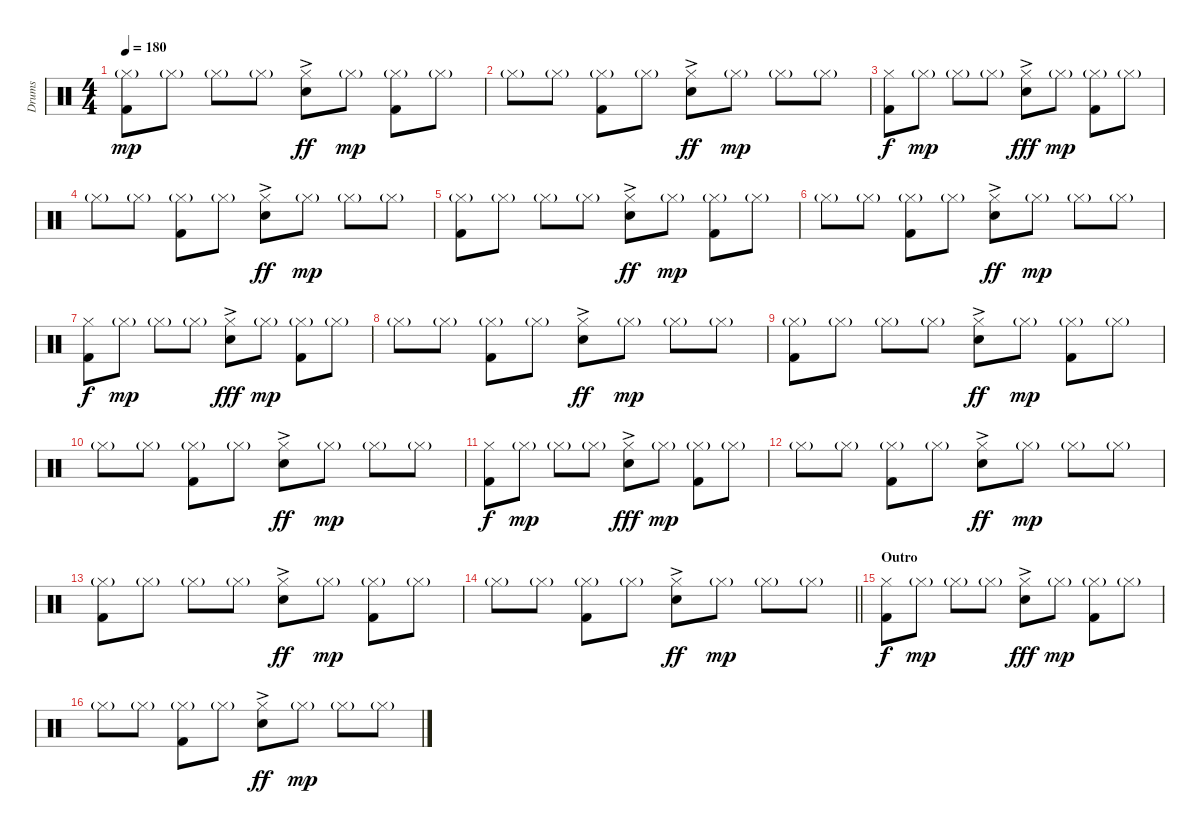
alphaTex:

\track ("Drums" "Drums") {instrument percussion}
\staff {score}
\articulation defaults
\ts (4 4)
\tempo 180
\clef neutral
\ks c
("Hi-Hat (closed)"{g} "Kick (hit) 2").8{dy mp} "Hi-Hat (closed)"{g}.8 "Hi-Hat (closed)"{g}.8 "Hi-Hat (closed)"{g}.8 ("Hi-Hat (closed)"{ac} "Snare (hit) 2"{ac}).8{dy ff} "Hi-Hat (closed)"{g}.8{dy mp} ("Hi-Hat (closed)"{g} "Kick (hit) 2").8 "Hi-Hat (closed)"{g}.8 |
"Hi-Hat (closed)"{g}.8 "Hi-Hat (closed)"{g}.8 ("Hi-Hat (closed)"{g} "Kick (hit) 2").8 "Hi-Hat (closed)"{g}.8 ("Hi-Hat (closed)"{ac} "Snare (hit) 2"{ac}).8{dy ff} "Hi-Hat (closed)"{g}.8{dy mp} "Hi-Hat (closed)"{g}.8 "Hi-Hat (closed)"{g}.8 |
("Hi-Hat (closed)" "Kick (hit) 2").8{dy f} "Hi-Hat (closed)"{g}.8{dy mp} "Hi-Hat (closed)"{g}.8 "Hi-Hat (closed)"{g}.8 ("Hi-Hat (closed)"{ac} "Snare (hit) 2"{ac}).8{dy fff} "Hi-Hat (closed)"{g}.8{dy mp} ("Hi-Hat (closed)"{g} "Kick (hit) 2").8 "Hi-Hat (closed)"{g}.8 |
"Hi-Hat (closed)"{g}.8 "Hi-Hat (closed)"{g}.8 ("Hi-Hat (closed)"{g} "Kick (hit) 2").8 "Hi-Hat (closed)"{g}.8 ("Hi-Hat (closed)"{ac} "Snare (hit) 2"{ac}).8{dy ff} "Hi-Hat (closed)"{g}.8{dy mp} "Hi-Hat (closed)"{g}.8 "Hi-Hat (closed)"{g}.8 |
("Hi-Hat (closed)"{g} "Kick (hit) 2").8 "Hi-Hat (closed)"{g}.8 "Hi-Hat (closed)"{g}.8 "Hi-Hat (closed)"{g}.8 ("Hi-Hat (closed)"{ac} "Snare (hit) 2"{ac}).8{dy ff} "Hi-Hat (closed)"{g}.8{dy mp} ("Hi-Hat (closed)"{g} "Kick (hit) 2").8 "Hi-Hat (closed)"{g}.8 |
"Hi-Hat (closed)"{g}.8 "Hi-Hat (closed)"{g}.8 ("Hi-Hat (closed)"{g} "Kick (hit) 2").8 "Hi-Hat (closed)"{g}.8 ("Hi-Hat (closed)"{ac} "Snare (hit) 2"{ac}).8{dy ff} "Hi-Hat (closed)"{g}.8{dy mp} "Hi-Hat (closed)"{g}.8 "Hi-Hat (closed)"{g}.8 |
("Hi-Hat (closed)" "Kick (hit) 2").8{dy f} "Hi-Hat (closed)"{g}.8{dy mp} "Hi-Hat (closed)"{g}.8 "Hi-Hat (closed)"{g}.8 ("Hi-Hat (closed)"{ac} "Snare (hit) 2"{ac}).8{dy fff} "Hi-Hat (closed)"{g}.8{dy mp} ("Hi-Hat (closed)"{g} "Kick (hit) 2").8 "Hi-Hat (closed)"{g}.8 |
"Hi-Hat (closed)"{g}.8 "Hi-Hat (closed)"{g}.8 ("Hi-Hat (closed)"{g} "Kick (hit) 2").8 "Hi-Hat (closed)"{g}.8 ("Hi-Hat (closed)"{ac} "Snare (hit) 2"{ac}).8{dy ff} "Hi-Hat (closed)"{g}.8{dy mp} "Hi-Hat (closed)"{g}.8 "Hi-Hat (closed)"{g}.8 |
("Hi-Hat (closed)"{g} "Kick (hit) 2").8 "Hi-Hat (closed)"{g}.8 "Hi-Hat (closed)"{g}.8 "Hi-Hat (closed)"{g}.8 ("Hi-Hat (closed)"{ac} "Snare (hit) 2"{ac}).8{dy ff} "Hi-Hat (closed)"{g}.8{dy mp} ("Hi-Hat (closed)"{g} "Kick (hit) 2").8 "Hi-Hat (closed)"{g}.8 |
"Hi-Hat (closed)"{g}.8 "Hi-Hat (closed)"{g}.8 ("Hi-Hat (closed)"{g} "Kick (hit) 2").8 "Hi-Hat (closed)"{g}.8 ("Hi-Hat (closed)"{ac} "Snare (hit) 2"{ac}).8{dy ff} "Hi-Hat (closed)"{g}.8{dy mp} "Hi-Hat (closed)"{g}.8 "Hi-Hat (closed)"{g}.8 |
("Hi-Hat (closed)" "Kick (hit) 2").8{dy f} "Hi-Hat (closed)"{g}.8{dy mp} "Hi-Hat (closed)"{g}.8 "Hi-Hat (closed)"{g}.8 ("Hi-Hat (closed)"{ac} "Snare (hit) 2"{ac}).8{dy fff} "Hi-Hat (closed)"{g}.8{dy mp} ("Hi-Hat (closed)"{g} "Kick (hit) 2").8 "Hi-Hat (closed)"{g}.8 |
"Hi-Hat (closed)"{g}.8 "Hi-Hat (closed)"{g}.8 ("Hi-Hat (closed)"{g} "Kick (hit) 2").8 "Hi-Hat (closed)"{g}.8 ("Hi-Hat (closed)"{ac} "Snare (hit) 2"{ac}).8{dy ff} "Hi-Hat (closed)"{g}.8{dy mp} "Hi-Hat (closed)"{g}.8 "Hi-Hat (closed)"{g}.8 |
("Hi-Hat (closed)"{g} "Kick (hit) 2").8 "Hi-Hat (closed)"{g}.8 "Hi-Hat (closed)"{g}.8 "Hi-Hat (closed)"{g}.8 ("Hi-Hat (closed)"{ac} "Snare (hit) 2"{ac}).8{dy ff} "Hi-Hat (closed)"{g}.8{dy mp} ("Hi-Hat (closed)"{g} "Kick (hit) 2").8 "Hi-Hat (closed)"{g}.8 |
\barLineRight lightlight "Hi-Hat (closed)"{g}.8 "Hi-Hat (closed)"{g}.8
("Hi-Hat (closed)"{g} "Kick (hit) 2").8 "Hi-Hat (closed)"{g}.8 ("Hi-Hat (closed)"{ac} "Snare (hit) 2"{ac}).8{dy ff} "Hi-Hat (closed)"{g}.8{dy mp} "Hi-Hat (closed)"{g}.8 "Hi-Hat (closed)"{g}.8 |
\section ("" "Outro")
("Hi-Hat (closed)" "Kick (hit) 2").8{dy f} "Hi-Hat (closed)"{g}.8{dy mp} "Hi-Hat (closed)"{g}.8 "Hi-Hat (closed)"{g}.8 ("Hi-Hat (closed)"{ac} "Snare (hit) 2"{ac}).8{dy fff} "Hi-Hat (closed)"{g}.8{dy mp} ("Hi-Hat (closed)"{g} "Kick (hit) 2").8 "Hi-Hat (closed)"{g}.8 |
"Hi-Hat (closed)"{g}.8 "Hi-Hat (closed)"{g}.8 ("Hi-Hat (closed)"{g} "Kick (hit) 2").8 "Hi-Hat (closed)"{g}.8 ("Hi-Hat (closed)"{ac} "Snare (hit) 2"{ac}).8{dy ff} "Hi-Hat (closed)"{g}.8{dy mp} "Hi-Hat (closed)"{g}.8 "Hi-Hat (closed)"{g}.8
